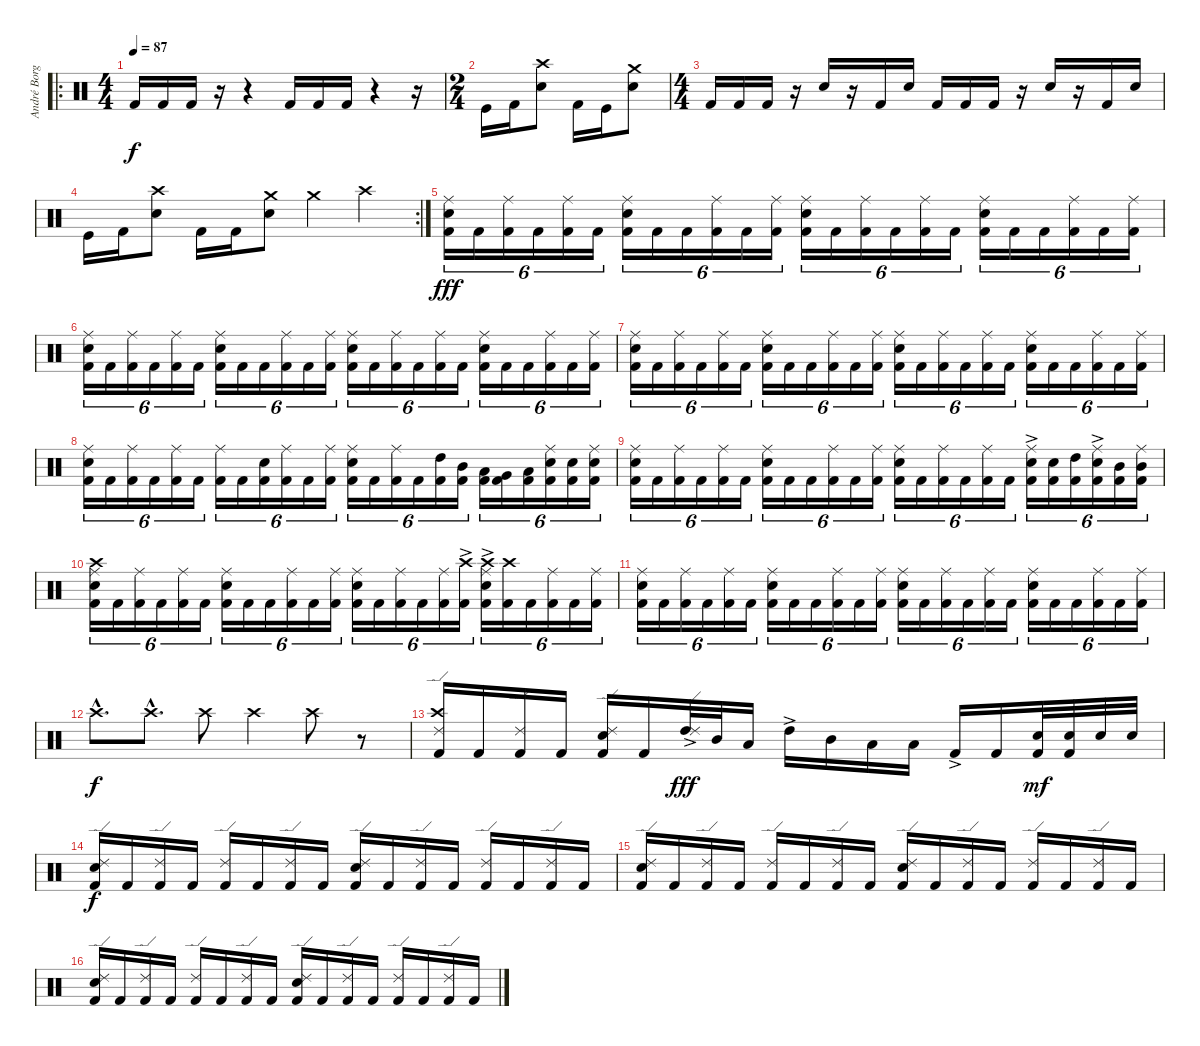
\track ("André Borgman" "André Borg") {instrument percussion}
\staff {score}
\articulation defaults
\ro
\ts (4 4)
\tempo 87
\clef neutral
\ks c "Kick (hit) 2".16{dy f} "Kick (hit) 2".16 "Kick (hit) 2".16
r.16 r.4 "Kick (hit) 2".16 "Kick (hit) 2".16 "Kick (hit) 2".16 r.4 r.16 |
\ts (2 4)
"Kick (hit)".16 "Kick (hit) 2".16 ("Crash high (hit)" "Electric Snare (hit)").8 "Kick (hit) 2".16 "Kick (hit)".16 ("Crash medium (hit)" "Electric Snare (hit)").8 |
\ts (4 4)
"Kick (hit) 2".16 "Kick (hit) 2".16 "Kick (hit) 2".16 r.16 "Electric Snare (hit)".16 r.16 "Kick (hit) 2".16 "Electric Snare (hit)".16 "Kick (hit) 2".16 "Kick (hit) 2".16 "Kick (hit) 2".16 r.16 "Electric Snare (hit)".16 r.16 "Kick (hit) 2".16 "Electric Snare (hit)".16 |
\rc 2 "Kick (hit)".16 "Kick (hit) 2".16
("Crash high (hit)" "Electric Snare (hit)").8 "Kick (hit) 2".16 "Kick (hit) 2".16 ("Crash medium (hit)" "Electric Snare (hit)").8 "Crash medium (hit)".4 "Crash high (hit)".4 |
("Electric Snare (hit)" "Ride (middle)" "Kick (hit) 2").16{tu (6 4) dy fff} "Kick (hit) 2".16{tu (6 4)} ("Ride (middle)" "Kick (hit) 2").16{tu (6 4)} "Kick (hit) 2".16{tu (6 4)} ("Ride (middle)" "Kick (hit) 2").16{tu (6 4)} "Kick (hit) 2".16{tu (6 4)} ("Electric Snare (hit)" "Ride (middle)" "Kick (hit) 2").16{tu (6 4)} "Kick (hit) 2".16{tu (6 4)} "Kick (hit) 2".16{tu (6 4)} ("Ride (middle)" "Kick (hit) 2").16{tu (6 4)} "Kick (hit) 2".16{tu (6 4)} ("Ride (middle)" "Kick (hit) 2").16{tu (6 4)} ("Electric Snare (hit)" "Ride (middle)" "Kick (hit) 2").16{tu (6 4)} "Kick (hit) 2".16{tu (6 4)} ("Ride (middle)" "Kick (hit) 2").16{tu (6 4)} "Kick (hit) 2".16{tu (6 4)} ("Ride (middle)" "Kick (hit) 2").16{tu (6 4)} "Kick (hit) 2".16{tu (6 4)} ("Electric Snare (hit)" "Ride (middle)" "Kick (hit) 2").16{tu (6 4)} "Kick (hit) 2".16{tu (6 4)} "Kick (hit) 2".16{tu (6 4)} ("Ride (middle)" "Kick (hit) 2").16{tu (6 4)} "Kick (hit) 2".16{tu (6 4)} ("Ride (middle)" "Kick (hit) 2").16{tu (6 4)} |
("Electric Snare (hit)" "Ride (middle)" "Kick (hit) 2").16{tu (6 4)} "Kick (hit) 2".16{tu (6 4)} ("Ride (middle)" "Kick (hit) 2").16{tu (6 4)} "Kick (hit) 2".16{tu (6 4)} ("Ride (middle)" "Kick (hit) 2").16{tu (6 4)} "Kick (hit) 2".16{tu (6 4)} ("Electric Snare (hit)" "Ride (middle)" "Kick (hit) 2").16{tu (6 4)} "Kick (hit) 2".16{tu (6 4)} "Kick (hit) 2".16{tu (6 4)} ("Ride (middle)" "Kick (hit) 2").16{tu (6 4)} "Kick (hit) 2".16{tu (6 4)} ("Ride (middle)" "Kick (hit) 2").16{tu (6 4)} ("Electric Snare (hit)" "Ride (middle)" "Kick (hit) 2").16{tu (6 4)} "Kick (hit) 2".16{tu (6 4)} ("Ride (middle)" "Kick (hit) 2").16{tu (6 4)} "Kick (hit) 2".16{tu (6 4)} ("Ride (middle)" "Kick (hit) 2").16{tu (6 4)} "Kick (hit) 2".16{tu (6 4)} ("Electric Snare (hit)" "Ride (middle)" "Kick (hit) 2").16{tu (6 4)} "Kick (hit) 2".16{tu (6 4)} "Kick (hit) 2".16{tu (6 4)} ("Ride (middle)" "Kick (hit) 2").16{tu (6 4)} "Kick (hit) 2".16{tu (6 4)} ("Ride (middle)" "Kick (hit) 2").16{tu (6 4)} |
("Electric Snare (hit)" "Ride (middle)" "Kick (hit) 2").16{tu (6 4)} "Kick (hit) 2".16{tu (6 4)} ("Ride (middle)" "Kick (hit) 2").16{tu (6 4)} "Kick (hit) 2".16{tu (6 4)} ("Ride (middle)" "Kick (hit) 2").16{tu (6 4)} "Kick (hit) 2".16{tu (6 4)} ("Electric Snare (hit)" "Ride (middle)" "Kick (hit) 2").16{tu (6 4)} "Kick (hit) 2".16{tu (6 4)} "Kick (hit) 2".16{tu (6 4)} ("Ride (middle)" "Kick (hit) 2").16{tu (6 4)} "Kick (hit) 2".16{tu (6 4)} ("Ride (middle)" "Kick (hit) 2").16{tu (6 4)} ("Electric Snare (hit)" "Ride (middle)" "Kick (hit) 2").16{tu (6 4)} "Kick (hit) 2".16{tu (6 4)} ("Ride (middle)" "Kick (hit) 2").16{tu (6 4)} "Kick (hit) 2".16{tu (6 4)} ("Ride (middle)" "Kick (hit) 2").16{tu (6 4)} "Kick (hit) 2".16{tu (6 4)} ("Electric Snare (hit)" "Ride (middle)" "Kick (hit) 2").16{tu (6 4)} "Kick (hit) 2".16{tu (6 4)} "Kick (hit) 2".16{tu (6 4)} ("Ride (middle)" "Kick (hit) 2").16{tu (6 4)} "Kick (hit) 2".16{tu (6 4)} ("Ride (middle)" "Kick (hit) 2").16{tu (6 4)} |
("Electric Snare (hit)" "Ride (middle)" "Kick (hit) 2").16{tu (6 4)} "Kick (hit) 2".16{tu (6 4)} ("Ride (middle)" "Kick (hit) 2").16{tu (6 4)} "Kick (hit) 2".16{tu (6 4)} ("Ride (middle)" "Kick (hit) 2").16{tu (6 4)} "Kick (hit) 2".16{tu (6 4)} ("Ride (middle)" "Kick (hit) 2").16{tu (6 4)} "Kick (hit) 2".16{tu (6 4)} ("Electric Snare (hit)" "Kick (hit) 2").16{tu (6 4)} ("Ride (middle)" "Kick (hit) 2").16{tu (6 4)} "Kick (hit) 2".16{tu (6 4)} ("Ride (middle)" "Kick (hit) 2").16{tu (6 4)} ("Electric Snare (hit)" "Ride (middle)" "Kick (hit) 2").16{tu (6 4)} "Kick (hit) 2".16{tu (6 4)} ("Ride (middle)" "Kick (hit) 2").16{tu (6 4)} "Kick (hit) 2".16{tu (6 4)} ("High Tom (hit)" "Kick (hit) 2").16{tu (6 4)} ("Mid Tom (hit)" "Kick (hit) 2").16{tu (6 4)} ("Low Tom (hit)" "Kick (hit) 2").16{tu (6 4)} ("Very Low Tom (hit)" "Kick (hit) 2").16{tu (6 4)} ("Low Floor Tom (hit)" "Kick (hit) 2").16{tu (6 4)} ("Electric Snare (hit)" "Ride (middle)" "Kick (hit) 2").16{tu (6 4)} ("Electric Snare (hit)" "Kick (hit) 2").16{tu (6 4)} ("Electric Snare (hit)" "Ride (middle)" "Kick (hit) 2").16{tu (6 4)} |
("Electric Snare (hit)" "Ride (middle)" "Kick (hit) 2").16{tu (6 4)} "Kick (hit) 2".16{tu (6 4)} ("Ride (middle)" "Kick (hit) 2").16{tu (6 4)} "Kick (hit) 2".16{tu (6 4)} ("Ride (middle)" "Kick (hit) 2").16{tu (6 4)} "Kick (hit) 2".16{tu (6 4)} ("Electric Snare (hit)" "Ride (middle)" "Kick (hit) 2").16{tu (6 4)} "Kick (hit) 2".16{tu (6 4)} "Kick (hit) 2".16{tu (6 4)} ("Ride (middle)" "Kick (hit) 2").16{tu (6 4)} "Kick (hit) 2".16{tu (6 4)} ("Ride (middle)" "Kick (hit) 2").16{tu (6 4)} ("Electric Snare (hit)" "Ride (middle)" "Kick (hit) 2").16{tu (6 4)} "Kick (hit) 2".16{tu (6 4)} ("Ride (middle)" "Kick (hit) 2").16{tu (6 4)} "Kick (hit) 2".16{tu (6 4)} ("Ride (middle)" "Kick (hit) 2").16{tu (6 4)} "Kick (hit) 2".16{tu (6 4)} ("Electric Snare (hit)"{ac} "Ride (middle)" "Kick (hit) 2").16{tu (6 4)} ("Electric Snare (hit)" "Kick (hit) 2").16{tu (6 4)} ("High Tom (hit)" "Kick (hit) 2").16{tu (6 4)} ("Electric Snare (hit)"{ac} "Ride (middle)" "Kick (hit) 2").16{tu (6 4)} ("Mid Tom (hit)" "Kick (hit) 2").16{tu (6 4)} ("Mid Tom (hit)" "Ride (middle)" "Kick (hit) 2").16{tu (6 4)} |
("Crash high (hit)" "Electric Snare (hit)" "Ride (middle)" "Kick (hit) 2").16{tu (6 4)} "Kick (hit) 2".16{tu (6 4)} ("Ride (middle)" "Kick (hit) 2").16{tu (6 4)} "Kick (hit) 2".16{tu (6 4)} ("Ride (middle)" "Kick (hit) 2").16{tu (6 4)} "Kick (hit) 2".16{tu (6 4)} ("Electric Snare (hit)" "Ride (middle)" "Kick (hit) 2").16{tu (6 4)} "Kick (hit) 2".16{tu (6 4)} "Kick (hit) 2".16{tu (6 4)} ("Ride (middle)" "Kick (hit) 2").16{tu (6 4)} "Kick (hit) 2".16{tu (6 4)} ("Ride (middle)" "Kick (hit) 2").16{tu (6 4)} ("Electric Snare (hit)" "Ride (middle)" "Kick (hit) 2").16{tu (6 4)} "Kick (hit) 2".16{tu (6 4)} ("Ride (middle)" "Kick (hit) 2").16{tu (6 4)} "Kick (hit) 2".16{tu (6 4)} ("Ride (middle)" "Kick (hit) 2").16{tu (6 4)} ("Crash high (hit)"{ac} "Kick (hit) 2").16{tu (6 4)} ("Crash high (hit)"{ac} "Electric Snare (hit)" "Ride (middle)" "Kick (hit) 2").16{tu (6 4)} ("Crash high (hit)" "Kick (hit) 2").16{tu (6 4)} "Kick (hit) 2".16{tu (6 4)} ("Ride (middle)" "Kick (hit) 2").16{tu (6 4)} "Kick (hit) 2".16{tu (6 4)} ("Ride (middle)" "Kick (hit) 2").16{tu (6 4)} |
("Electric Snare (hit)" "Ride (middle)" "Kick (hit) 2").16{tu (6 4)} "Kick (hit) 2".16{tu (6 4)} ("Ride (middle)" "Kick (hit) 2").16{tu (6 4)} "Kick (hit) 2".16{tu (6 4)} ("Ride (middle)" "Kick (hit) 2").16{tu (6 4)} "Kick (hit) 2".16{tu (6 4)} ("Electric Snare (hit)" "Ride (middle)" "Kick (hit) 2").16{tu (6 4)} "Kick (hit) 2".16{tu (6 4)} "Kick (hit) 2".16{tu (6 4)} ("Ride (middle)" "Kick (hit) 2").16{tu (6 4)} "Kick (hit) 2".16{tu (6 4)} ("Ride (middle)" "Kick (hit) 2").16{tu (6 4)} ("Electric Snare (hit)" "Ride (middle)" "Kick (hit) 2").16{tu (6 4)} "Kick (hit) 2".16{tu (6 4)} ("Ride (middle)" "Kick (hit) 2").16{tu (6 4)} "Kick (hit) 2".16{tu (6 4)} ("Ride (middle)" "Kick (hit) 2").16{tu (6 4)} "Kick (hit) 2".16{tu (6 4)} ("Electric Snare (hit)" "Ride (middle)" "Kick (hit) 2").16{tu (6 4)} "Kick (hit) 2".16{tu (6 4)} "Kick (hit) 2".16{tu (6 4)} ("Ride (middle)" "Kick (hit) 2").16{tu (6 4)} "Kick (hit) 2".16{tu (6 4)} ("Ride (middle)" "Kick (hit) 2").16{tu (6 4)} |
"Crash high (hit)"{hac}.8{d dy f} "Crash high (hit)"{hac}.8{d} "Crash high (hit)".8 "Crash high (hit)".4 "Crash high (hit)".8 r.8 |
("Crash high (hit)" "Kick (hit) 2" "Ride (edge) 2").16 "Kick (hit) 2".16 ("Kick (hit) 2" "Ride (edge) 2").16 "Kick (hit) 2".16 ("Electric Snare (hit)" "Kick (hit) 2" "Ride (edge) 2").16 "Kick (hit) 2".16 ("High Tom (hit)"{ac} "Ride (edge) 2").32{dy fff} "Mid Tom (hit)".32 "Low Tom (hit)".16 "High Tom (hit)"{ac}.16 "Mid Tom (hit)".16 "Low Tom (hit)".16 "Low Floor Tom (hit)".16 "Kick (hit) 2"{ac}.16 "Kick (hit) 2".16 ("Electric Snare (hit)" "Kick (hit) 2").32{dy mf} ("Electric Snare (hit)" "Kick (hit) 2").32 "Electric Snare (hit)".32 "Electric Snare (hit)".32 |
("Electric Snare (hit)" "Kick (hit) 2" "Ride (edge) 2").16{dy f} "Kick (hit) 2".16 ("Kick (hit) 2" "Ride (edge) 2").16 "Kick (hit) 2".16 ("Kick (hit) 2" "Ride (edge) 2").16 "Kick (hit) 2".16 ("Kick (hit) 2" "Ride (edge) 2").16 "Kick (hit) 2".16 ("Electric Snare (hit)" "Kick (hit) 2" "Ride (edge) 2").16 "Kick (hit) 2".16 ("Kick (hit) 2" "Ride (edge) 2").16 "Kick (hit) 2".16 ("Kick (hit) 2" "Ride (edge) 2").16 "Kick (hit) 2".16 ("Kick (hit) 2" "Ride (edge) 2").16 "Kick (hit) 2".16 |
("Electric Snare (hit)" "Kick (hit) 2" "Ride (edge) 2").16 "Kick (hit) 2".16 ("Kick (hit) 2" "Ride (edge) 2").16 "Kick (hit) 2".16 ("Kick (hit) 2" "Ride (edge) 2").16 "Kick (hit) 2".16 ("Kick (hit) 2" "Ride (edge) 2").16 "Kick (hit) 2".16 ("Electric Snare (hit)" "Kick (hit) 2" "Ride (edge) 2").16 "Kick (hit) 2".16 ("Kick (hit) 2" "Ride (edge) 2").16 "Kick (hit) 2".16 ("Kick (hit) 2" "Ride (edge) 2").16 "Kick (hit) 2".16 ("Kick (hit) 2" "Ride (edge) 2").16 "Kick (hit) 2".16 |
("Electric Snare (hit)" "Kick (hit) 2" "Ride (edge) 2").16 "Kick (hit) 2".16 ("Kick (hit) 2" "Ride (edge) 2").16 "Kick (hit) 2".16 ("Kick (hit) 2" "Ride (edge) 2").16 "Kick (hit) 2".16 ("Kick (hit) 2" "Ride (edge) 2").16 "Kick (hit) 2".16 ("Electric Snare (hit)" "Kick (hit) 2" "Ride (edge) 2").16 "Kick (hit) 2".16 ("Kick (hit) 2" "Ride (edge) 2").16 "Kick (hit) 2".16 ("Kick (hit) 2" "Ride (edge) 2").16 "Kick (hit) 2".16 ("Kick (hit) 2" "Ride (edge) 2").16 "Kick (hit) 2".16
